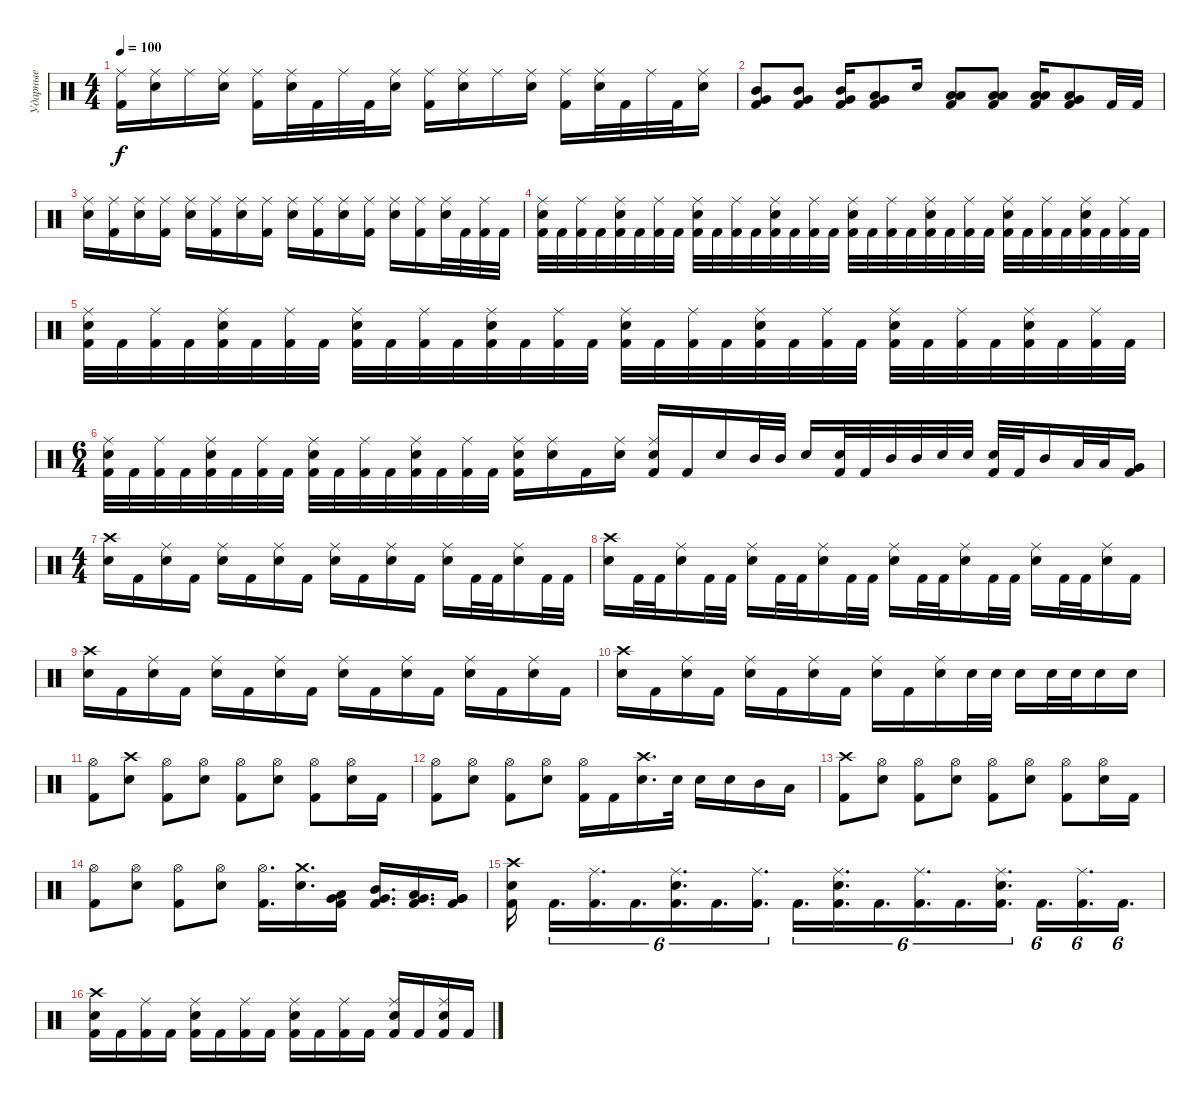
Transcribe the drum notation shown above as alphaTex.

\track ("Ударные" "Ударные") {instrument percussion}
\staff
\articulation defaults
\ts (4 4)
\tempo 100
\clef neutral
\ks c
("Kick (hit) 2" "Ride (middle)").16{dy f} ("Electric Snare (hit)" "Ride (middle)").16 "Ride (middle)".16 ("Electric Snare (hit)" "Ride (middle)").16 ("Kick (hit) 2" "Ride (middle)").16 ("Electric Snare (hit)" "Ride (middle)").32 "Kick (hit) 2".32 "Ride (middle)".32 "Kick (hit) 2".32 ("Electric Snare (hit)" "Ride (middle)").16 ("Kick (hit) 2" "Ride (middle)").16 ("Electric Snare (hit)" "Ride (middle)").16 "Ride (middle)".16 ("Electric Snare (hit)" "Ride (middle)").16 ("Kick (hit) 2" "Ride (middle)").16 ("Electric Snare (hit)" "Ride (middle)").32 "Kick (hit) 2".32 "Ride (middle)".32 "Kick (hit) 2".32 ("Electric Snare (hit)" "Ride (middle)").16 |
("Kick (hit) 2" "Mid Tom (hit)" "Very Low Tom (hit)").8 ("Kick (hit) 2" "Mid Tom (hit)" "Very Low Tom (hit)").8 ("Kick (hit) 2" "Mid Tom (hit)" "Very Low Tom (hit)").16 ("Kick (hit) 2" "Low Tom (hit)" "Very Low Tom (hit)").8 "Electric Snare (hit)".16 ("Kick (hit) 2" "Low Tom (hit)" "Low Floor Tom (hit)").8 ("Kick (hit) 2" "Low Tom (hit)" "Low Floor Tom (hit)").8 ("Kick (hit) 2" "Low Tom (hit)" "Low Floor Tom (hit)").16 ("Kick (hit) 2" "Very Low Tom (hit)" "Low Floor Tom (hit)").8 "Kick (hit) 2".32 "Kick (hit) 2".32 |
("Electric Snare (hit)" "Ride (middle)").16 ("Kick (hit) 2" "Ride (middle)").16 ("Electric Snare (hit)" "Ride (middle)").16 ("Kick (hit) 2" "Ride (middle)").16 ("Electric Snare (hit)" "Ride (middle)").16 ("Kick (hit) 2" "Ride (middle)").16 ("Electric Snare (hit)" "Ride (middle)").16 ("Kick (hit) 2" "Ride (middle)").16 ("Electric Snare (hit)" "Ride (middle)").16 ("Kick (hit) 2" "Ride (middle)").16 ("Electric Snare (hit)" "Ride (middle)").16 ("Kick (hit) 2" "Ride (middle)").16 ("Electric Snare (hit)" "Ride (middle)").16 ("Kick (hit) 2" "Ride (middle)").16 ("Electric Snare (hit)" "Ride (middle)").32 "Kick (hit) 2".32 ("Kick (hit) 2" "Ride (middle)").32 "Kick (hit) 2".32 |
("Kick (hit) 2" "Ride (middle)" "Electric Snare (hit)").32 "Kick (hit) 2".32 ("Kick (hit) 2" "Ride (middle)").32 "Kick (hit) 2".32 ("Kick (hit) 2" "Ride (middle)" "Electric Snare (hit)").32 "Kick (hit) 2".32 ("Kick (hit) 2" "Ride (middle)").32 "Kick (hit) 2".32 ("Kick (hit) 2" "Ride (middle)" "Electric Snare (hit)").32 "Kick (hit) 2".32 ("Kick (hit) 2" "Ride (middle)").32 "Kick (hit) 2".32 ("Kick (hit) 2" "Ride (middle)" "Electric Snare (hit)").32 "Kick (hit) 2".32 ("Kick (hit) 2" "Ride (middle)").32 "Kick (hit) 2".32 ("Kick (hit) 2" "Ride (middle)" "Electric Snare (hit)").32 "Kick (hit) 2".32 ("Kick (hit) 2" "Ride (middle)").32 "Kick (hit) 2".32 ("Kick (hit) 2" "Ride (middle)" "Electric Snare (hit)").32 "Kick (hit) 2".32 ("Kick (hit) 2" "Ride (middle)").32 "Kick (hit) 2".32 ("Kick (hit) 2" "Ride (middle)" "Electric Snare (hit)").32 "Kick (hit) 2".32 ("Kick (hit) 2" "Ride (middle)").32 "Kick (hit) 2".32 ("Kick (hit) 2" "Ride (middle)" "Electric Snare (hit)").32 "Kick (hit) 2".32 ("Kick (hit) 2" "Ride (middle)").32 "Kick (hit) 2".32 |
("Kick (hit) 2" "Ride (middle)" "Electric Snare (hit)").32 "Kick (hit) 2".32 ("Kick (hit) 2" "Ride (middle)").32 "Kick (hit) 2".32 ("Kick (hit) 2" "Ride (middle)" "Electric Snare (hit)").32 "Kick (hit) 2".32 ("Kick (hit) 2" "Ride (middle)").32 "Kick (hit) 2".32 ("Kick (hit) 2" "Ride (middle)" "Electric Snare (hit)").32 "Kick (hit) 2".32 ("Kick (hit) 2" "Ride (middle)").32 "Kick (hit) 2".32 ("Kick (hit) 2" "Ride (middle)" "Electric Snare (hit)").32 "Kick (hit) 2".32 ("Kick (hit) 2" "Ride (middle)").32 "Kick (hit) 2".32 ("Kick (hit) 2" "Ride (middle)" "Electric Snare (hit)").32 "Kick (hit) 2".32 ("Kick (hit) 2" "Ride (middle)").32 "Kick (hit) 2".32 ("Kick (hit) 2" "Ride (middle)" "Electric Snare (hit)").32 "Kick (hit) 2".32 ("Kick (hit) 2" "Ride (middle)").32 "Kick (hit) 2".32 ("Kick (hit) 2" "Ride (middle)" "Electric Snare (hit)").32 "Kick (hit) 2".32 ("Kick (hit) 2" "Ride (middle)").32 "Kick (hit) 2".32 ("Kick (hit) 2" "Ride (middle)" "Electric Snare (hit)").32 "Kick (hit) 2".32 ("Kick (hit) 2" "Ride (middle)").32 "Kick (hit) 2".32 |
\ts (6 4)
("Kick (hit) 2" "Ride (middle)" "Electric Snare (hit)").32 "Kick (hit) 2".32 ("Kick (hit) 2" "Ride (middle)").32 "Kick (hit) 2".32 ("Kick (hit) 2" "Ride (middle)" "Electric Snare (hit)").32 "Kick (hit) 2".32 ("Kick (hit) 2" "Ride (middle)").32 "Kick (hit) 2".32 ("Kick (hit) 2" "Ride (middle)" "Electric Snare (hit)").32 "Kick (hit) 2".32 ("Kick (hit) 2" "Ride (middle)").32 "Kick (hit) 2".32 ("Kick (hit) 2" "Ride (middle)" "Electric Snare (hit)").32 "Kick (hit) 2".32 ("Kick (hit) 2" "Ride (middle)").32 "Kick (hit) 2".32 ("Kick (hit) 2" "Ride (middle)" "Electric Snare (hit)").16 ("Electric Snare (hit)" "Ride (middle)").16 "Kick (hit) 2".16 ("Electric Snare (hit)" "Ride (middle)").16 ("Electric Snare (hit)" "Ride (middle)" "Kick (hit) 2").16 "Kick (hit) 2".16 "Electric Snare (hit)".16 "Mid Tom (hit)".32 "Mid Tom (hit)".32 "Electric Snare (hit)".16 ("Electric Snare (hit)" "Kick (hit) 2").32 "Kick (hit) 2".32 "Mid Tom (hit)".32 "Mid Tom (hit)".32 "Electric Snare (hit)".32 "Electric Snare (hit)".32 ("Electric Snare (hit)" "Kick (hit) 2").32 "Kick (hit) 2".32 "Mid Tom (hit)".16 "Low Tom (hit)".32 "Low Tom (hit)".32 ("Very Low Tom (hit)" "Kick (hit) 2").16 |
\ts (4 4)
("Electric Snare (hit)" "Crash high (hit)").16 "Kick (hit) 2".16 ("Electric Snare (hit)" "Ride (middle)").16 "Kick (hit) 2".16 ("Electric Snare (hit)" "Ride (middle)").16 "Kick (hit) 2".16 ("Electric Snare (hit)" "Ride (middle)").16 "Kick (hit) 2".16 ("Electric Snare (hit)" "Ride (middle)").16 "Kick (hit) 2".16 ("Electric Snare (hit)" "Ride (middle)").16 "Kick (hit) 2".16 ("Electric Snare (hit)" "Ride (middle)").16 "Kick (hit) 2".32 "Kick (hit) 2".32 ("Electric Snare (hit)" "Ride (middle)").16 "Kick (hit) 2".32 "Kick (hit) 2".32 |
("Electric Snare (hit)" "Crash high (hit)").16 "Kick (hit) 2".32 "Kick (hit) 2".32 ("Electric Snare (hit)" "Ride (middle)").16 "Kick (hit) 2".32 "Kick (hit) 2".32 ("Electric Snare (hit)" "Ride (middle)").16 "Kick (hit) 2".32 "Kick (hit) 2".32 ("Electric Snare (hit)" "Ride (middle)").16 "Kick (hit) 2".32 "Kick (hit) 2".32 ("Electric Snare (hit)" "Ride (middle)").16 "Kick (hit) 2".32 "Kick (hit) 2".32 ("Electric Snare (hit)" "Ride (middle)").16 "Kick (hit) 2".32 "Kick (hit) 2".32 ("Electric Snare (hit)" "Ride (middle)").16 "Kick (hit) 2".32 "Kick (hit) 2".32 ("Electric Snare (hit)" "Ride (middle)").16 "Kick (hit) 2".16 |
("Electric Snare (hit)" "Crash high (hit)").16 "Kick (hit) 2".16 ("Electric Snare (hit)" "Ride (middle)").16 "Kick (hit) 2".16 ("Electric Snare (hit)" "Ride (middle)").16 "Kick (hit) 2".16 ("Electric Snare (hit)" "Ride (middle)").16 "Kick (hit) 2".16 ("Electric Snare (hit)" "Ride (middle)").16 "Kick (hit) 2".16 ("Electric Snare (hit)" "Ride (middle)").16 "Kick (hit) 2".16 ("Electric Snare (hit)" "Ride (middle)").16 "Kick (hit) 2".16 ("Electric Snare (hit)" "Ride (middle)").16 "Kick (hit) 2".16 |
("Electric Snare (hit)" "Crash high (hit)").16 "Kick (hit) 2".16 ("Electric Snare (hit)" "Ride (middle)").16 "Kick (hit) 2".16 ("Electric Snare (hit)" "Ride (middle)").16 "Kick (hit) 2".16 ("Electric Snare (hit)" "Ride (middle)").16 "Kick (hit) 2".16 ("Electric Snare (hit)" "Ride (middle)").16 "Kick (hit) 2".16 ("Electric Snare (hit)" "Ride (middle)").16 "Electric Snare (hit)".32 "Electric Snare (hit)".32 "Electric Snare (hit)".16 "Electric Snare (hit)".32 "Electric Snare (hit)".32 "Electric Snare (hit)".16 "Electric Snare (hit)".16 |
("Kick (hit) 2" "Hi-Hat (open)").8 ("Electric Snare (hit)" "Crash high (hit)").8 ("Kick (hit) 2" "Hi-Hat (open)").8 ("Electric Snare (hit)" "Hi-Hat (open)").8 ("Kick (hit) 2" "Hi-Hat (open)").8 ("Electric Snare (hit)" "Hi-Hat (open)").8 ("Kick (hit) 2" "Hi-Hat (open)").8 ("Electric Snare (hit)" "Hi-Hat (open)").16 "Kick (hit) 2".16 |
("Kick (hit) 2" "Hi-Hat (open)").8 ("Electric Snare (hit)" "Hi-Hat (open)").8 ("Kick (hit) 2" "Hi-Hat (open)").8 ("Electric Snare (hit)" "Hi-Hat (open)").8 ("Kick (hit) 2" "Hi-Hat (open)").16 "Kick (hit) 2".16 ("Electric Snare (hit)" "Crash high (hit)").16{d} "Electric Snare (hit)".32 "Electric Snare (hit)".16 "Electric Snare (hit)".16 "Mid Tom (hit)".16 "Low Tom (hit)".16 |
("Kick (hit) 2" "Crash high (hit)").8 ("Electric Snare (hit)" "Hi-Hat (open)").8 ("Kick (hit) 2" "Hi-Hat (open)").8 ("Electric Snare (hit)" "Hi-Hat (open)").8 ("Kick (hit) 2" "Hi-Hat (open)").8 ("Electric Snare (hit)" "Hi-Hat (open)").8 ("Kick (hit) 2" "Hi-Hat (open)").8 ("Electric Snare (hit)" "Hi-Hat (open)").16 "Kick (hit) 2".16 |
("Kick (hit) 2" "Hi-Hat (open)").8 ("Electric Snare (hit)" "Hi-Hat (open)").8 ("Kick (hit) 2" "Hi-Hat (open)").8 ("Electric Snare (hit)" "Hi-Hat (open)").8 ("Kick (hit) 2" "Hi-Hat (open)").16{d} ("Electric Snare (hit)" "Crash medium (hit)").16{d} ("Kick (hit) 2" "Low Tom (hit)" "Very Low Tom (hit)").16 ("Kick (hit) 2" "Mid Tom (hit)" "Very Low Tom (hit)").16{d} ("Kick (hit) 2" "Low Tom (hit)" "Very Low Tom (hit)").16{d} ("Kick (hit) 2" "Very Low Tom (hit)" "Very Low Tom (hit)").16 |
("Kick (hit) 2" "Electric Snare (hit)" "Crash high (hit)").16{beam splitsecondary} "Kick (hit) 2".16{d tu (6 4)} ("Kick (hit) 2" "Ride (middle)").16{d tu (6 4)} "Kick (hit) 2".16{d tu (6 4)} ("Kick (hit) 2" "Electric Snare (hit)" "Ride (middle)").16{d tu (6 4)} "Kick (hit) 2".16{d tu (6 4)} ("Kick (hit) 2" "Ride (middle)").16{d tu (6 4)} "Kick (hit) 2".16{d tu (6 4)} ("Kick (hit) 2" "Electric Snare (hit)" "Ride (middle)").16{d tu (6 4)} "Kick (hit) 2".16{d tu (6 4)} ("Kick (hit) 2" "Ride (middle)").16{d tu (6 4)} "Kick (hit) 2".16{d tu (6 4)} ("Kick (hit) 2" "Electric Snare (hit)" "Ride (middle)").16{d tu (6 4)} "Kick (hit) 2".16{d tu (6 4)} ("Kick (hit) 2" "Ride (middle)").16{d tu (6 4)} "Kick (hit) 2".16{d tu (6 4)} |
("Kick (hit) 2" "Crash high (hit)" "Electric Snare (hit)").16 "Kick (hit) 2".16 ("Kick (hit) 2" "Ride (middle)").16 "Kick (hit) 2".16 ("Kick (hit) 2" "Electric Snare (hit)" "Ride (middle)").16 "Kick (hit) 2".16 ("Kick (hit) 2" "Ride (middle)").16 "Kick (hit) 2".16 ("Kick (hit) 2" "Electric Snare (hit)" "Ride (middle)").16 "Kick (hit) 2".16 ("Kick (hit) 2" "Ride (middle)").16 "Kick (hit) 2".16 ("Kick (hit) 2" "Electric Snare (hit)" "Ride (middle)").16 "Kick (hit) 2".16 ("Kick (hit) 2" "Electric Snare (hit)" "Ride (middle)").16 "Kick (hit) 2".16
